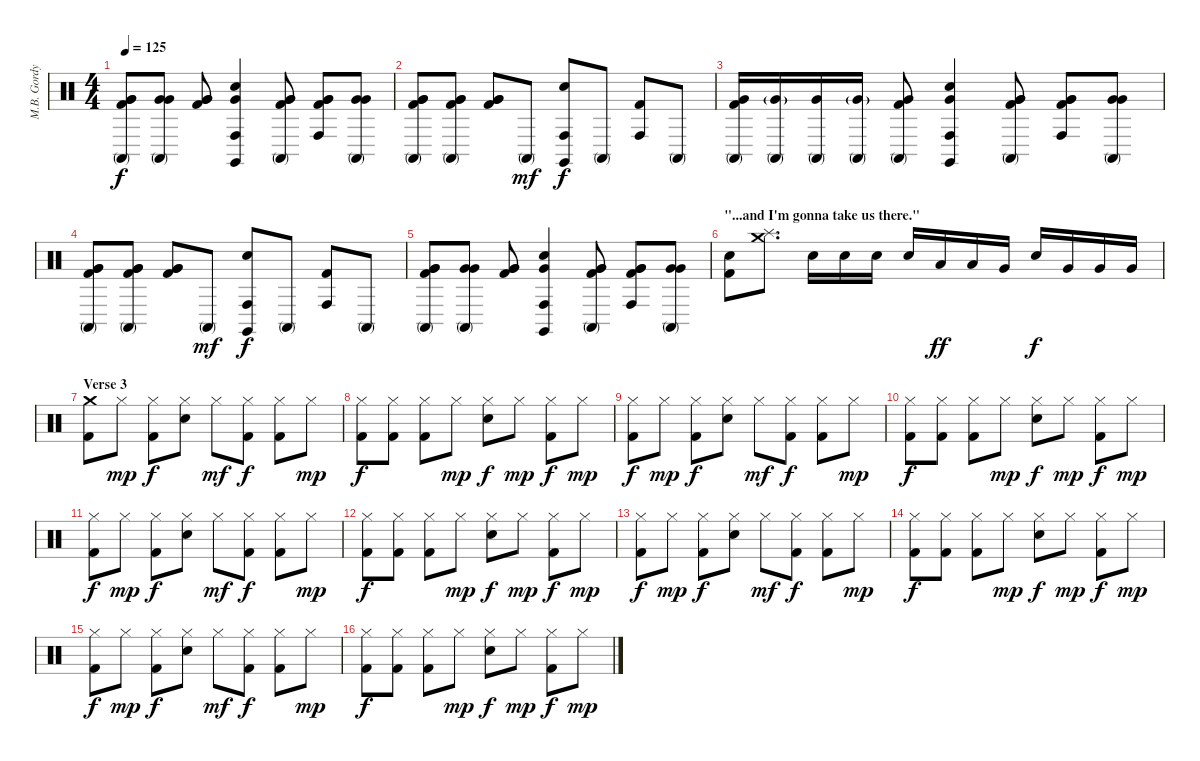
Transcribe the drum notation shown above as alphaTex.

\track ("M.B. Gordy [Percüsion]" "M.B. Gordy") {instrument percussion}
\staff {score}
\articulation defaults
\ts (4 4)
\tempo 125
\clef neutral
\ks c
("Conga high (mute)" "Very Low Tom (hit)" "Very Low Tom (hit)" "Kick (hit) 2").8{dy f} ("Conga high (mute)" "Very Low Tom (hit)" "Very Low Tom (hit)").8 ("Very Low Tom (hit)" "Very Low Tom (hit)" "Kick (hit) 2").8 ("Claves (hit)" "Conga high (hit)" "Hand Clap (hit)" "Very Low Tom (hit)").4 ("Conga high (mute)" "Very Low Tom (hit)" "Very Low Tom (hit)" "Kick (hit) 2").8 ("Conga high (hit)" "Very Low Tom (hit)" "Very Low Tom (hit)" "Kick (hit) 2").8 ("Conga high (mute)" "Very Low Tom (hit)" "Very Low Tom (hit)").8 |
("Conga high (mute)" "Very Low Tom (hit)" "Very Low Tom (hit)" "Kick (hit) 2").8 ("Conga high (mute)" "Very Low Tom (hit)" "Very Low Tom (hit)" "Kick (hit) 2").8 ("Very Low Tom (hit)" "Very Low Tom (hit)" "Kick (hit) 2").8 "Conga high (mute)".8{dy mf} ("Claves (hit)" "Conga high (hit)" "Hand Clap (hit)").8{dy f} "Conga high (mute)".8 ("Conga high (hit)" "Kick (hit) 2").8 "Conga high (mute)".8 |
("Conga high (mute)" "Very Low Tom (hit)" "Kick (hit) 2").16 ("Conga high (mute)" "Very Low Tom (hit)"{g}).16 ("Conga high (mute)" "Very Low Tom (hit)").16 ("Conga high (mute)" "Very Low Tom (hit)"{g}).16 ("Conga high (mute)" "Very Low Tom (hit)" "Kick (hit) 2").8 ("Claves (hit)" "Conga high (hit)" "Hand Clap (hit)" "Very Low Tom (hit)").4 ("Conga high (mute)" "Very Low Tom (hit)" "Very Low Tom (hit)" "Kick (hit) 2").8 ("Conga high (hit)" "Very Low Tom (hit)" "Very Low Tom (hit)" "Kick (hit) 2").8 ("Conga high (mute)" "Very Low Tom (hit)" "Very Low Tom (hit)").8 |
("Conga high (mute)" "Very Low Tom (hit)" "Very Low Tom (hit)" "Kick (hit) 2").8 ("Conga high (mute)" "Very Low Tom (hit)" "Very Low Tom (hit)" "Kick (hit) 2").8 ("Very Low Tom (hit)" "Very Low Tom (hit)" "Kick (hit) 2").8 "Conga high (mute)".8{dy mf} ("Claves (hit)" "Conga high (hit)" "Hand Clap (hit)").8{dy f} "Conga high (mute)".8 ("Conga high (hit)" "Kick (hit) 2").8 "Conga high (mute)".8 |
("Conga high (mute)" "Very Low Tom (hit)" "Very Low Tom (hit)" "Kick (hit) 2").8 ("Conga high (mute)" "Very Low Tom (hit)" "Very Low Tom (hit)").8 ("Very Low Tom (hit)" "Very Low Tom (hit)" "Kick (hit) 2").8 ("Claves (hit)" "Conga high (hit)" "Hand Clap (hit)" "Very Low Tom (hit)").4 ("Conga high (mute)" "Very Low Tom (hit)" "Very Low Tom (hit)" "Kick (hit) 2").8 ("Conga high (hit)" "Very Low Tom (hit)" "Very Low Tom (hit)" "Kick (hit) 2").8 ("Conga high (mute)" "Very Low Tom (hit)" "Very Low Tom (hit)").8 |
\section ("" "\"...and I'm gonna take us there.\"")
("Electric Snare (hit)" "Kick (hit) 2").8 ("Crash medium (hit)" "Splash (hit)").8{d} "Electric Snare (hit)".16 "Electric Snare (hit)".16 "Electric Snare (hit)".16 "Electric Snare (hit)".16 "Low Tom (hit)".16{dy ff} "Low Tom (hit)".16 "Very Low Tom (hit)".16 "Electric Snare (hit)".16{dy f} "Very Low Tom (hit)".16 "Very Low Tom (hit)".16 "Very Low Tom (hit)".16 |
\section ("" "Verse 3")
("Crash medium (hit)" "Kick (hit) 2").8 "Hi-Hat (closed)".8{dy mp} ("Hi-Hat (closed)" "Kick (hit) 2").8{dy f} ("Hi-Hat (closed)" "Electric Snare (hit)").8 "Hi-Hat (closed)".8{dy mf} ("Hi-Hat (closed)" "Kick (hit) 2").8{dy f} ("Hi-Hat (closed)" "Kick (hit) 2").8 "Hi-Hat (closed)".8{dy mp} |
("Hi-Hat (closed)" "Kick (hit) 2").8{dy f} ("Hi-Hat (closed)" "Kick (hit) 2").8 ("Hi-Hat (closed)" "Kick (hit) 2").8 "Hi-Hat (closed)".8{dy mp} ("Hi-Hat (closed)" "Electric Snare (hit)").8{dy f} "Hi-Hat (closed)".8{dy mp} ("Hi-Hat (closed)" "Kick (hit) 2").8{dy f} "Hi-Hat (closed)".8{dy mp} |
("Hi-Hat (closed)" "Kick (hit) 2").8{dy f} "Hi-Hat (closed)".8{dy mp} ("Hi-Hat (closed)" "Kick (hit) 2").8{dy f} ("Hi-Hat (closed)" "Electric Snare (hit)").8 "Hi-Hat (closed)".8{dy mf} ("Hi-Hat (closed)" "Kick (hit) 2").8{dy f} ("Hi-Hat (closed)" "Kick (hit) 2").8 "Hi-Hat (closed)".8{dy mp} |
("Hi-Hat (closed)" "Kick (hit) 2").8{dy f} ("Hi-Hat (closed)" "Kick (hit) 2").8 ("Hi-Hat (closed)" "Kick (hit) 2").8 "Hi-Hat (closed)".8{dy mp} ("Hi-Hat (closed)" "Electric Snare (hit)").8{dy f} "Hi-Hat (closed)".8{dy mp} ("Hi-Hat (closed)" "Kick (hit) 2").8{dy f} "Hi-Hat (closed)".8{dy mp} |
("Hi-Hat (closed)" "Kick (hit) 2").8{dy f} "Hi-Hat (closed)".8{dy mp} ("Hi-Hat (closed)" "Kick (hit) 2").8{dy f} ("Hi-Hat (closed)" "Electric Snare (hit)").8 "Hi-Hat (closed)".8{dy mf} ("Hi-Hat (closed)" "Kick (hit) 2").8{dy f} ("Hi-Hat (closed)" "Kick (hit) 2").8 "Hi-Hat (closed)".8{dy mp} |
("Hi-Hat (closed)" "Kick (hit) 2").8{dy f} ("Hi-Hat (closed)" "Kick (hit) 2").8 ("Hi-Hat (closed)" "Kick (hit) 2").8 "Hi-Hat (closed)".8{dy mp} ("Hi-Hat (closed)" "Electric Snare (hit)").8{dy f} "Hi-Hat (closed)".8{dy mp} ("Hi-Hat (closed)" "Kick (hit) 2").8{dy f} "Hi-Hat (closed)".8{dy mp} |
("Hi-Hat (closed)" "Kick (hit) 2").8{dy f} "Hi-Hat (closed)".8{dy mp} ("Hi-Hat (closed)" "Kick (hit) 2").8{dy f} ("Hi-Hat (closed)" "Electric Snare (hit)").8 "Hi-Hat (closed)".8{dy mf} ("Hi-Hat (closed)" "Kick (hit) 2").8{dy f} ("Hi-Hat (closed)" "Kick (hit) 2").8 "Hi-Hat (closed)".8{dy mp} |
("Hi-Hat (closed)" "Kick (hit) 2").8{dy f} ("Hi-Hat (closed)" "Kick (hit) 2").8 ("Hi-Hat (closed)" "Kick (hit) 2").8 "Hi-Hat (closed)".8{dy mp} ("Hi-Hat (closed)" "Electric Snare (hit)").8{dy f} "Hi-Hat (closed)".8{dy mp} ("Hi-Hat (closed)" "Kick (hit) 2").8{dy f} "Hi-Hat (closed)".8{dy mp} |
("Hi-Hat (closed)" "Kick (hit) 2").8{dy f} "Hi-Hat (closed)".8{dy mp} ("Hi-Hat (closed)" "Kick (hit) 2").8{dy f} ("Hi-Hat (closed)" "Electric Snare (hit)").8 "Hi-Hat (closed)".8{dy mf} ("Hi-Hat (closed)" "Kick (hit) 2").8{dy f} ("Hi-Hat (closed)" "Kick (hit) 2").8 "Hi-Hat (closed)".8{dy mp} |
("Hi-Hat (closed)" "Kick (hit) 2").8{dy f} ("Hi-Hat (closed)" "Kick (hit) 2").8 ("Hi-Hat (closed)" "Kick (hit) 2").8 "Hi-Hat (closed)".8{dy mp} ("Hi-Hat (closed)" "Electric Snare (hit)").8{dy f} "Hi-Hat (closed)".8{dy mp} ("Hi-Hat (closed)" "Kick (hit) 2").8{dy f} "Hi-Hat (closed)".8{dy mp}
